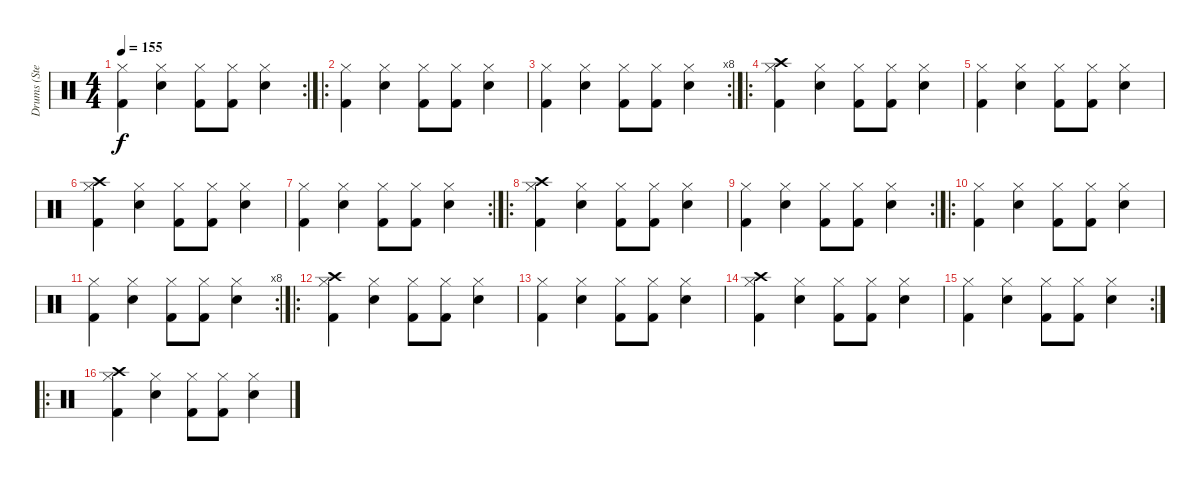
\track ("Drums (Stephen Morris)" "Drums (Ste") {instrument percussion}
\staff {score}
\articulation defaults
\rc 2
\ts (4 4)
\tempo 155
\clef neutral
\ks c
("Kick (hit) 2" "Hi-Hat (closed)").4{dy f} ("Snare (hit) 2" "Hi-Hat (closed)").4 ("Kick (hit) 2" "Hi-Hat (closed)").8 ("Kick (hit) 2" "Hi-Hat (closed)").8 ("Snare (hit) 2" "Hi-Hat (closed)").4 |
\ro
("Kick (hit) 2" "Hi-Hat (closed)").4 ("Snare (hit) 2" "Hi-Hat (closed)").4 ("Kick (hit) 2" "Hi-Hat (closed)").8 ("Kick (hit) 2" "Hi-Hat (closed)").8 ("Snare (hit) 2" "Hi-Hat (closed)").4 |
\rc 8
("Kick (hit) 2" "Hi-Hat (closed)").4 ("Snare (hit) 2" "Hi-Hat (closed)").4 ("Kick (hit) 2" "Hi-Hat (closed)").8 ("Kick (hit) 2" "Hi-Hat (closed)").8 ("Snare (hit) 2" "Hi-Hat (closed)").4 |
\ro
("Crash high (hit)" "Kick (hit) 2" "Hi-Hat (closed)").4 ("Snare (hit) 2" "Hi-Hat (closed)").4 ("Kick (hit) 2" "Hi-Hat (closed)").8 ("Kick (hit) 2" "Hi-Hat (closed)").8 ("Snare (hit) 2" "Hi-Hat (closed)").4 |
("Kick (hit) 2" "Hi-Hat (closed)").4 ("Snare (hit) 2" "Hi-Hat (closed)").4 ("Kick (hit) 2" "Hi-Hat (closed)").8 ("Kick (hit) 2" "Hi-Hat (closed)").8 ("Snare (hit) 2" "Hi-Hat (closed)").4 |
("Crash high (hit)" "Kick (hit) 2" "Hi-Hat (closed)").4 ("Snare (hit) 2" "Hi-Hat (closed)").4 ("Kick (hit) 2" "Hi-Hat (closed)").8 ("Kick (hit) 2" "Hi-Hat (closed)").8 ("Snare (hit) 2" "Hi-Hat (closed)").4 |
\rc 2
("Kick (hit) 2" "Hi-Hat (closed)").4 ("Snare (hit) 2" "Hi-Hat (closed)").4 ("Kick (hit) 2" "Hi-Hat (closed)").8 ("Kick (hit) 2" "Hi-Hat (closed)").8 ("Snare (hit) 2" "Hi-Hat (closed)").4 |
\ro
("Crash high (hit)" "Kick (hit) 2" "Hi-Hat (closed)").4 ("Snare (hit) 2" "Hi-Hat (closed)").4 ("Kick (hit) 2" "Hi-Hat (closed)").8 ("Kick (hit) 2" "Hi-Hat (closed)").8 ("Snare (hit) 2" "Hi-Hat (closed)").4 |
\rc 2
("Kick (hit) 2" "Hi-Hat (closed)").4 ("Snare (hit) 2" "Hi-Hat (closed)").4 ("Kick (hit) 2" "Hi-Hat (closed)").8 ("Kick (hit) 2" "Hi-Hat (closed)").8 ("Snare (hit) 2" "Hi-Hat (closed)").4 |
\ro
("Kick (hit) 2" "Hi-Hat (closed)").4 ("Snare (hit) 2" "Hi-Hat (closed)").4 ("Kick (hit) 2" "Hi-Hat (closed)").8 ("Kick (hit) 2" "Hi-Hat (closed)").8 ("Snare (hit) 2" "Hi-Hat (closed)").4 |
\rc 8
("Kick (hit) 2" "Hi-Hat (closed)").4 ("Snare (hit) 2" "Hi-Hat (closed)").4 ("Kick (hit) 2" "Hi-Hat (closed)").8 ("Kick (hit) 2" "Hi-Hat (closed)").8 ("Snare (hit) 2" "Hi-Hat (closed)").4 |
\ro
("Crash high (hit)" "Kick (hit) 2" "Hi-Hat (closed)").4 ("Snare (hit) 2" "Hi-Hat (closed)").4 ("Kick (hit) 2" "Hi-Hat (closed)").8 ("Kick (hit) 2" "Hi-Hat (closed)").8 ("Snare (hit) 2" "Hi-Hat (closed)").4 |
("Kick (hit) 2" "Hi-Hat (closed)").4 ("Snare (hit) 2" "Hi-Hat (closed)").4 ("Kick (hit) 2" "Hi-Hat (closed)").8 ("Kick (hit) 2" "Hi-Hat (closed)").8 ("Snare (hit) 2" "Hi-Hat (closed)").4 |
("Crash high (hit)" "Kick (hit) 2" "Hi-Hat (closed)").4 ("Snare (hit) 2" "Hi-Hat (closed)").4 ("Kick (hit) 2" "Hi-Hat (closed)").8 ("Kick (hit) 2" "Hi-Hat (closed)").8 ("Snare (hit) 2" "Hi-Hat (closed)").4 |
\rc 2
("Kick (hit) 2" "Hi-Hat (closed)").4 ("Snare (hit) 2" "Hi-Hat (closed)").4 ("Kick (hit) 2" "Hi-Hat (closed)").8 ("Kick (hit) 2" "Hi-Hat (closed)").8 ("Snare (hit) 2" "Hi-Hat (closed)").4 |
\ro
("Crash high (hit)" "Kick (hit) 2" "Hi-Hat (closed)").4 ("Snare (hit) 2" "Hi-Hat (closed)").4 ("Kick (hit) 2" "Hi-Hat (closed)").8 ("Kick (hit) 2" "Hi-Hat (closed)").8 ("Snare (hit) 2" "Hi-Hat (closed)").4
